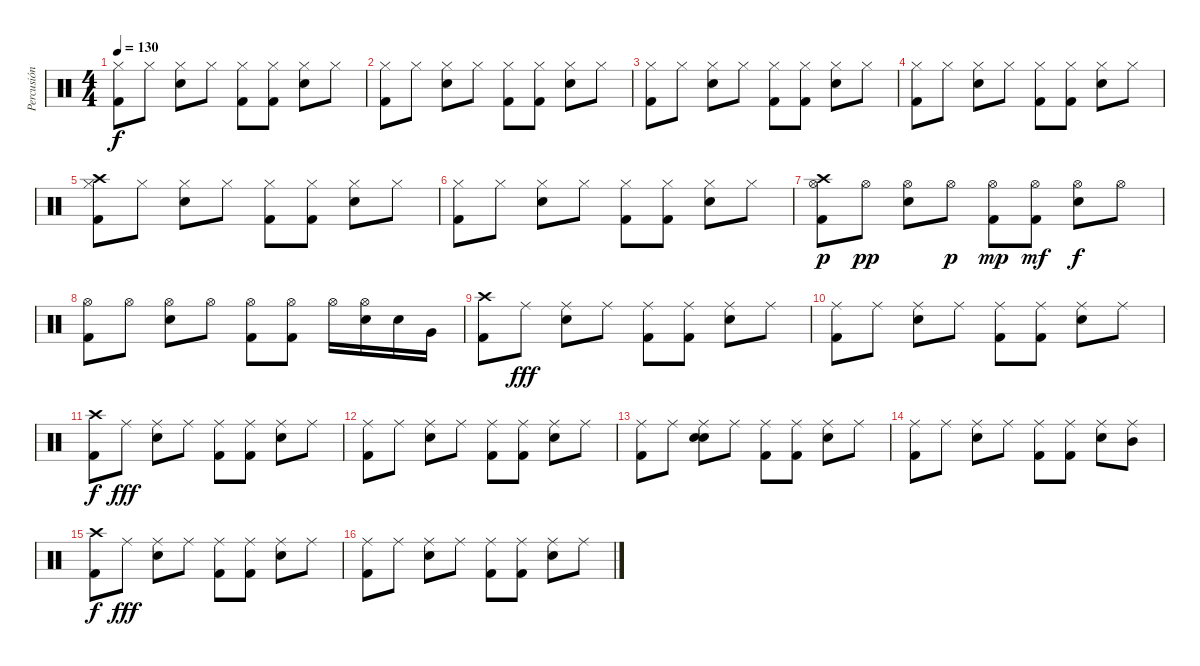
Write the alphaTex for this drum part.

\track ("Percusión" "Percusión") {instrument percussion}
\staff {score}
\articulation defaults
\ts (4 4)
\tempo 130
\clef neutral
\ks c
("Hi-Hat (closed)" "Kick (hit) 2").8{dy f} "Hi-Hat (closed)".8 ("Hi-Hat (closed)" "Electric Snare (hit)").8 "Hi-Hat (closed)".8 ("Hi-Hat (closed)" "Kick (hit) 2").8 ("Hi-Hat (closed)" "Kick (hit) 2").8 ("Hi-Hat (closed)" "Electric Snare (hit)").8 "Hi-Hat (closed)".8 |
("Hi-Hat (closed)" "Kick (hit) 2").8 "Hi-Hat (closed)".8 ("Hi-Hat (closed)" "Electric Snare (hit)").8 "Hi-Hat (closed)".8 ("Hi-Hat (closed)" "Kick (hit) 2").8 ("Hi-Hat (closed)" "Kick (hit) 2").8 ("Hi-Hat (closed)" "Electric Snare (hit)").8 "Hi-Hat (closed)".8 |
("Hi-Hat (closed)" "Kick (hit) 2").8 "Hi-Hat (closed)".8 ("Hi-Hat (closed)" "Electric Snare (hit)").8 "Hi-Hat (closed)".8 ("Hi-Hat (closed)" "Kick (hit) 2").8 ("Hi-Hat (closed)" "Kick (hit) 2").8 ("Hi-Hat (closed)" "Electric Snare (hit)").8 "Hi-Hat (closed)".8 |
("Hi-Hat (closed)" "Kick (hit) 2").8 "Hi-Hat (closed)".8 ("Hi-Hat (closed)" "Electric Snare (hit)").8 "Hi-Hat (closed)".8 ("Hi-Hat (closed)" "Kick (hit) 2").8 ("Hi-Hat (closed)" "Kick (hit) 2").8 ("Hi-Hat (closed)" "Electric Snare (hit)").8 "Hi-Hat (closed)".8 |
("Hi-Hat (closed)" "Kick (hit) 2" "Crash high (hit)").8 "Hi-Hat (closed)".8 ("Hi-Hat (closed)" "Electric Snare (hit)").8 "Hi-Hat (closed)".8 ("Hi-Hat (closed)" "Kick (hit) 2").8 ("Hi-Hat (closed)" "Kick (hit) 2").8 ("Hi-Hat (closed)" "Electric Snare (hit)").8 "Hi-Hat (closed)".8 |
("Hi-Hat (closed)" "Kick (hit) 2").8 "Hi-Hat (closed)".8 ("Hi-Hat (closed)" "Electric Snare (hit)").8 "Hi-Hat (closed)".8 ("Hi-Hat (closed)" "Kick (hit) 2").8 ("Hi-Hat (closed)" "Kick (hit) 2").8 ("Hi-Hat (closed)" "Electric Snare (hit)").8 "Hi-Hat (closed)".8 |
("Hi-Hat (open)" "Kick (hit) 2" "Crash high (hit)").8{dy p} "Hi-Hat (open)".8{dy pp} ("Hi-Hat (open)" "Electric Snare (hit)").8 "Hi-Hat (open)".8{dy p} ("Hi-Hat (open)" "Kick (hit) 2").8{dy mp} ("Hi-Hat (open)" "Kick (hit) 2").8{dy mf} ("Hi-Hat (open)" "Electric Snare (hit)").8{dy f} "Hi-Hat (open)".8 |
("Hi-Hat (open)" "Kick (hit) 2").8 "Hi-Hat (open)".8 ("Hi-Hat (open)" "Electric Snare (hit)").8 "Hi-Hat (open)".8 ("Hi-Hat (open)" "Kick (hit) 2").8 ("Hi-Hat (open)" "Kick (hit) 2").8 "Hi-Hat (open)".16 ("Hi-Hat (open)" "Electric Snare (hit)").16 "Electric Snare (hit)".16 "Very Low Tom (hit)".16 |
("Kick (hit) 2" "Crash high (hit)").8 "Ride (middle)".8{dy fff} ("Ride (middle)" "Electric Snare (hit)").8 "Ride (middle)".8 ("Ride (middle)" "Kick (hit) 2").8 ("Ride (middle)" "Kick (hit) 2").8 ("Ride (middle)" "Electric Snare (hit)").8 "Ride (middle)".8 |
("Ride (middle)" "Kick (hit) 2").8 "Ride (middle)".8 ("Ride (middle)" "Electric Snare (hit)").8 "Ride (middle)".8 ("Ride (middle)" "Kick (hit) 2").8 ("Ride (middle)" "Kick (hit) 2").8 ("Ride (middle)" "Electric Snare (hit)").8 "Ride (middle)".8 |
("Kick (hit) 2" "Crash high (hit)").8{dy f} "Ride (middle)".8{dy fff} ("Ride (middle)" "Electric Snare (hit)").8 "Ride (middle)".8 ("Ride (middle)" "Kick (hit) 2").8 ("Ride (middle)" "Kick (hit) 2").8 ("Ride (middle)" "Electric Snare (hit)").8 "Ride (middle)".8 |
("Ride (middle)" "Kick (hit) 2").8 "Ride (middle)".8 ("Ride (middle)" "Electric Snare (hit)").8 "Ride (middle)".8 ("Ride (middle)" "Kick (hit) 2").8 ("Ride (middle)" "Kick (hit) 2").8 ("Ride (middle)" "Electric Snare (hit)").8 "Ride (middle)".8 |
("Ride (middle)" "Kick (hit) 2").8 "Ride (middle)".8 ("Ride (middle)" "Electric Snare (hit)" "Snare (hit)").8 "Ride (middle)".8 ("Ride (middle)" "Kick (hit) 2").8 ("Ride (middle)" "Kick (hit) 2").8 ("Ride (middle)" "Electric Snare (hit)").8 "Ride (middle)".8 |
("Ride (middle)" "Kick (hit) 2").8 "Ride (middle)".8 ("Ride (middle)" "Electric Snare (hit)").8 "Ride (middle)".8 ("Ride (middle)" "Kick (hit) 2").8 ("Ride (middle)" "Kick (hit) 2").8 ("Ride (middle)" "Electric Snare (hit)").8 ("Ride (middle)" "Mid Tom (hit)").8{balance 16} |
("Kick (hit) 2" "Crash high (hit)").8{dy f balance 8} "Ride (middle)".8{dy fff} ("Ride (middle)" "Electric Snare (hit)").8 "Ride (middle)".8 ("Ride (middle)" "Kick (hit) 2").8 ("Ride (middle)" "Kick (hit) 2").8 ("Ride (middle)" "Electric Snare (hit)").8 "Ride (middle)".8 |
("Ride (middle)" "Kick (hit) 2").8 "Ride (middle)".8 ("Ride (middle)" "Electric Snare (hit)").8 "Ride (middle)".8 ("Ride (middle)" "Kick (hit) 2").8 ("Ride (middle)" "Kick (hit) 2").8 ("Ride (middle)" "Electric Snare (hit)").8 "Ride (middle)".8
